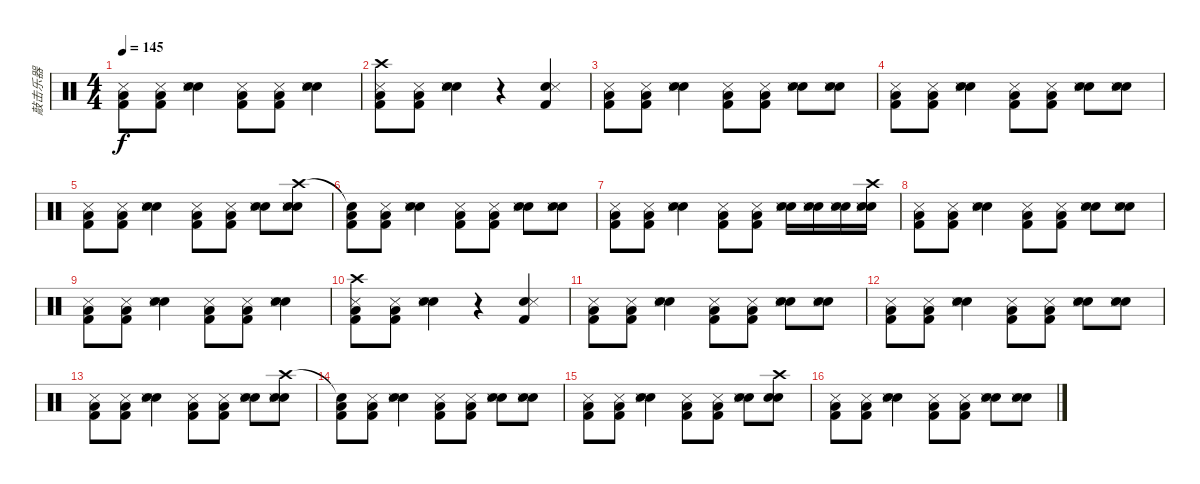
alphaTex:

\track ("敲击乐器" "敲击乐器") {instrument percussion}
\staff {score}
\articulation defaults
\ts (4 4)
\tempo 145
\clef neutral
\ks c
("Low Floor Tom (hit)" "Kick (hit) 2" "Snare (side stick) 3").8{dy f} ("Low Floor Tom (hit)" "Kick (hit) 2" "Snare (side stick) 3").8 ("Snare (hit) 2" "Electric Snare (hit)" "Snare (side stick) 3").4 ("Low Floor Tom (hit)" "Kick (hit) 2" "Snare (side stick) 3").8 ("Low Floor Tom (hit)" "Kick (hit) 2" "Snare (side stick) 3").8 ("Snare (hit) 2" "Electric Snare (hit)" "Snare (side stick) 3").4 |
("Low Floor Tom (hit)" "Kick (hit) 2" "Snare (side stick) 3" "Crash high (hit)").8 ("Low Floor Tom (hit)" "Kick (hit) 2" "Snare (side stick) 3").8 ("Snare (hit) 2" "Electric Snare (hit)" "Snare (side stick) 3").4 r.4 ("Kick (hit) 2" "Electric Snare (hit)" "Snare (side stick) 3").4 |
("Low Floor Tom (hit)" "Kick (hit) 2" "Snare (side stick) 3").8 ("Low Floor Tom (hit)" "Kick (hit) 2" "Snare (side stick) 3").8 ("Snare (hit) 2" "Electric Snare (hit)" "Snare (side stick) 3").4 ("Low Floor Tom (hit)" "Kick (hit) 2" "Snare (side stick) 3").8 ("Low Floor Tom (hit)" "Kick (hit) 2" "Snare (side stick) 3").8 ("Snare (hit) 2" "Electric Snare (hit)" "Snare (side stick) 3").8 ("Snare (hit) 2" "Electric Snare (hit)" "Snare (side stick) 3").8 |
("Low Floor Tom (hit)" "Kick (hit) 2" "Snare (side stick) 3").8 ("Low Floor Tom (hit)" "Kick (hit) 2" "Snare (side stick) 3").8 ("Snare (hit) 2" "Electric Snare (hit)" "Snare (side stick) 3").4 ("Low Floor Tom (hit)" "Kick (hit) 2" "Snare (side stick) 3").8 ("Low Floor Tom (hit)" "Kick (hit) 2" "Snare (side stick) 3").8 ("Snare (hit) 2" "Electric Snare (hit)" "Snare (side stick) 3").8 ("Snare (hit) 2" "Electric Snare (hit)" "Snare (side stick) 3").8 |
("Low Floor Tom (hit)" "Kick (hit) 2" "Snare (side stick) 3").8 ("Low Floor Tom (hit)" "Kick (hit) 2" "Snare (side stick) 3").8 ("Snare (hit) 2" "Electric Snare (hit)" "Snare (side stick) 3").4 ("Low Floor Tom (hit)" "Kick (hit) 2" "Snare (side stick) 3").8 ("Low Floor Tom (hit)" "Kick (hit) 2" "Snare (side stick) 3").8 ("Snare (hit) 2" "Electric Snare (hit)" "Snare (side stick) 3").8 ("Snare (hit) 2" "Snare (side stick) 3" "Crash high (hit)" "Electric Snare (hit)").8 |
("Low Floor Tom (hit)" "Kick (hit) 2" "Snare (hit)"{t}).8 ("Low Floor Tom (hit)" "Kick (hit) 2" "Snare (side stick) 3").8 ("Snare (hit) 2" "Electric Snare (hit)" "Snare (side stick) 3").4 ("Low Floor Tom (hit)" "Kick (hit) 2" "Snare (side stick) 3").8 ("Low Floor Tom (hit)" "Kick (hit) 2" "Snare (side stick) 3").8 ("Snare (hit) 2" "Electric Snare (hit)" "Snare (side stick) 3").8 ("Snare (hit) 2" "Electric Snare (hit)" "Snare (side stick) 3").8 |
("Low Floor Tom (hit)" "Kick (hit) 2" "Snare (side stick) 3").8 ("Low Floor Tom (hit)" "Kick (hit) 2" "Snare (side stick) 3").8 ("Snare (hit) 2" "Electric Snare (hit)" "Snare (side stick) 3").4 ("Low Floor Tom (hit)" "Kick (hit) 2" "Snare (side stick) 3").8 ("Low Floor Tom (hit)" "Kick (hit) 2" "Snare (side stick) 3").8 ("Electric Snare (hit)" "Hand Clap (hit)" "Snare (side stick) 3").16 ("Electric Snare (hit)" "Hand Clap (hit)" "Snare (side stick) 3").16 ("Electric Snare (hit)" "Hand Clap (hit)" "Snare (side stick) 3").16 ("Electric Snare (hit)" "Hand Clap (hit)" "Snare (side stick) 3" "Crash high (hit)").16 |
("Low Floor Tom (hit)" "Kick (hit) 2" "Snare (side stick) 3").8 ("Low Floor Tom (hit)" "Kick (hit) 2" "Snare (side stick) 3").8 ("Snare (hit) 2" "Electric Snare (hit)" "Snare (side stick) 3").4 ("Low Floor Tom (hit)" "Kick (hit) 2" "Snare (side stick) 3").8 ("Low Floor Tom (hit)" "Kick (hit) 2" "Snare (side stick) 3").8 ("Snare (hit) 2" "Electric Snare (hit)" "Snare (side stick) 3").8 ("Snare (hit) 2" "Electric Snare (hit)" "Snare (side stick) 3").8 |
("Low Floor Tom (hit)" "Kick (hit) 2" "Snare (side stick) 3").8 ("Low Floor Tom (hit)" "Kick (hit) 2" "Snare (side stick) 3").8 ("Snare (hit) 2" "Electric Snare (hit)" "Snare (side stick) 3").4 ("Low Floor Tom (hit)" "Kick (hit) 2" "Snare (side stick) 3").8 ("Low Floor Tom (hit)" "Kick (hit) 2" "Snare (side stick) 3").8 ("Snare (hit) 2" "Electric Snare (hit)" "Snare (side stick) 3").4 |
("Low Floor Tom (hit)" "Kick (hit) 2" "Snare (side stick) 3" "Crash high (hit)").8 ("Low Floor Tom (hit)" "Kick (hit) 2" "Snare (side stick) 3").8 ("Snare (hit) 2" "Electric Snare (hit)" "Snare (side stick) 3").4 r.4 ("Kick (hit) 2" "Electric Snare (hit)" "Snare (side stick) 3").4 |
("Low Floor Tom (hit)" "Kick (hit) 2" "Snare (side stick) 3").8 ("Low Floor Tom (hit)" "Kick (hit) 2" "Snare (side stick) 3").8 ("Snare (hit) 2" "Electric Snare (hit)" "Snare (side stick) 3").4 ("Low Floor Tom (hit)" "Kick (hit) 2" "Snare (side stick) 3").8 ("Low Floor Tom (hit)" "Kick (hit) 2" "Snare (side stick) 3").8 ("Snare (hit) 2" "Electric Snare (hit)" "Snare (side stick) 3").8 ("Snare (hit) 2" "Electric Snare (hit)" "Snare (side stick) 3").8 |
("Low Floor Tom (hit)" "Kick (hit) 2" "Snare (side stick) 3").8 ("Low Floor Tom (hit)" "Kick (hit) 2" "Snare (side stick) 3").8 ("Snare (hit) 2" "Electric Snare (hit)" "Snare (side stick) 3").4 ("Low Floor Tom (hit)" "Kick (hit) 2" "Snare (side stick) 3").8 ("Low Floor Tom (hit)" "Kick (hit) 2" "Snare (side stick) 3").8 ("Snare (hit) 2" "Electric Snare (hit)" "Snare (side stick) 3").8 ("Snare (hit) 2" "Electric Snare (hit)" "Snare (side stick) 3").8 |
("Low Floor Tom (hit)" "Kick (hit) 2" "Snare (side stick) 3").8 ("Low Floor Tom (hit)" "Kick (hit) 2" "Snare (side stick) 3").8 ("Snare (hit) 2" "Electric Snare (hit)" "Snare (side stick) 3").4 ("Low Floor Tom (hit)" "Kick (hit) 2" "Snare (side stick) 3").8 ("Low Floor Tom (hit)" "Kick (hit) 2" "Snare (side stick) 3").8 ("Snare (hit) 2" "Electric Snare (hit)" "Snare (side stick) 3").8 ("Snare (hit) 2" "Snare (side stick) 3" "Crash high (hit)" "Electric Snare (hit)").8 |
("Low Floor Tom (hit)" "Kick (hit) 2" "Snare (hit)"{t}).8 ("Low Floor Tom (hit)" "Kick (hit) 2" "Snare (side stick) 3").8 ("Snare (hit) 2" "Electric Snare (hit)" "Snare (side stick) 3").4 ("Low Floor Tom (hit)" "Kick (hit) 2" "Snare (side stick) 3").8 ("Low Floor Tom (hit)" "Kick (hit) 2" "Snare (side stick) 3").8 ("Snare (hit) 2" "Electric Snare (hit)" "Snare (side stick) 3").8 ("Snare (hit) 2" "Electric Snare (hit)" "Snare (side stick) 3").8 |
("Low Floor Tom (hit)" "Kick (hit) 2" "Snare (side stick) 3").8 ("Low Floor Tom (hit)" "Kick (hit) 2" "Snare (side stick) 3").8 ("Snare (hit) 2" "Electric Snare (hit)" "Snare (side stick) 3").4 ("Low Floor Tom (hit)" "Kick (hit) 2" "Snare (side stick) 3").8 ("Low Floor Tom (hit)" "Kick (hit) 2" "Snare (side stick) 3").8 ("Snare (hit) 2" "Electric Snare (hit)" "Snare (side stick) 3").8 ("Snare (hit) 2" "Electric Snare (hit)" "Crash high (hit)").8 |
("Low Floor Tom (hit)" "Kick (hit) 2" "Snare (side stick) 3").8 ("Low Floor Tom (hit)" "Kick (hit) 2" "Snare (side stick) 3").8 ("Snare (hit) 2" "Electric Snare (hit)" "Snare (side stick) 3").4 ("Low Floor Tom (hit)" "Kick (hit) 2" "Snare (side stick) 3").8 ("Low Floor Tom (hit)" "Kick (hit) 2" "Snare (side stick) 3").8 ("Snare (hit) 2" "Electric Snare (hit)" "Snare (side stick) 3").8 ("Snare (hit) 2" "Electric Snare (hit)" "Snare (side stick) 3").8
